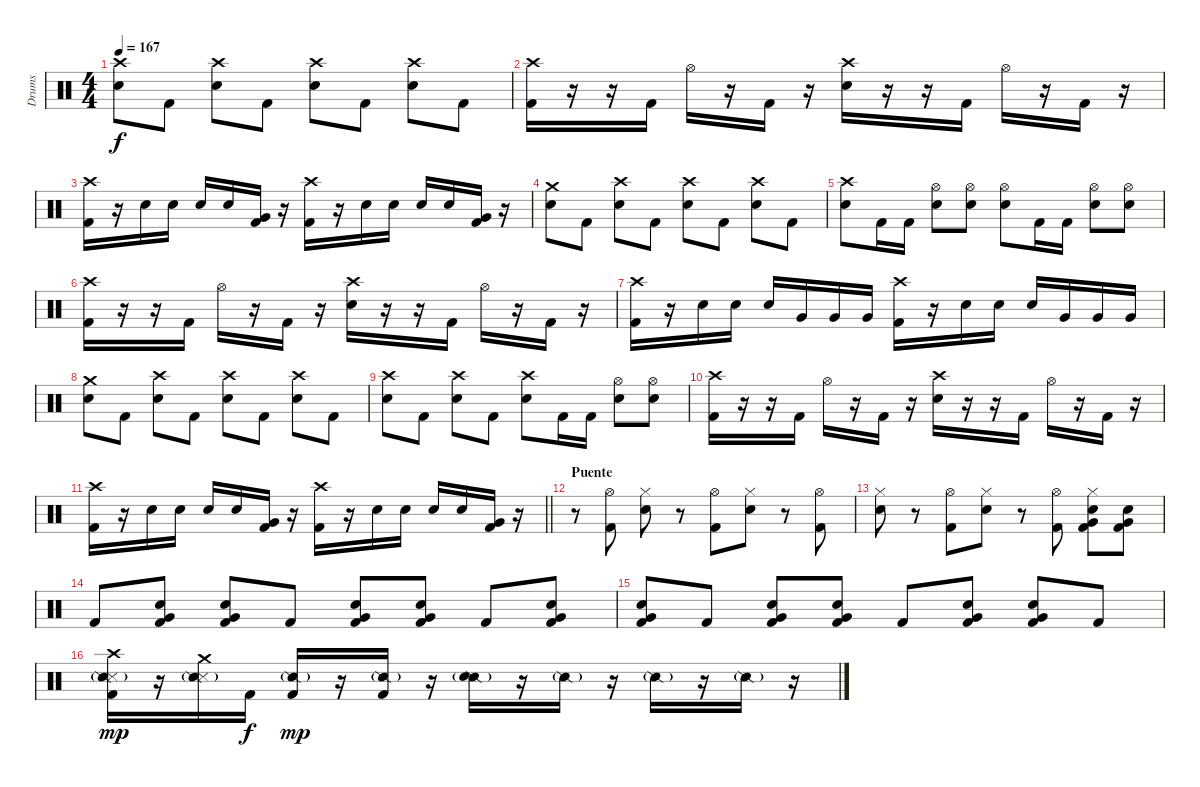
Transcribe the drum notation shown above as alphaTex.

\track ("Drums" "Drums") {instrument percussion}
\staff {score}
\articulation defaults
\ts (4 4)
\tempo 167
\clef neutral
\ks c
("Crash high (hit)" "Electric Snare (hit)").8{dy f} "Kick (hit) 2".8 ("Crash high (hit)" "Electric Snare (hit)").8 "Kick (hit) 2".8 ("Crash high (hit)" "Electric Snare (hit)").8 "Kick (hit) 2".8 ("Crash high (hit)" "Electric Snare (hit)").8 "Kick (hit) 2".8 |
("Crash high (hit)" "Kick (hit) 2").16 r.16 r.16 "Kick (hit) 2".16 "Hi-Hat (open)".16 r.16 "Kick (hit) 2".16 r.16 ("Crash high (hit)" "Electric Snare (hit)").16 r.16 r.16 "Kick (hit) 2".16 "Hi-Hat (open)".16 r.16 "Kick (hit) 2".16 r.16 |
("Crash high (hit)" "Kick (hit) 2").16 r.16 "Electric Snare (hit)".16 "Electric Snare (hit)".16 "Electric Snare (hit)".16 "Electric Snare (hit)".16 ("Very Low Tom (hit)" "Kick (hit) 2").16 r.16 ("Crash high (hit)" "Kick (hit) 2").16 r.16 "Electric Snare (hit)".16 "Electric Snare (hit)".16 "Electric Snare (hit)".16 "Electric Snare (hit)".16 ("Very Low Tom (hit)" "Kick (hit) 2").16 r.16 |
("Crash medium (hit)" "Electric Snare (hit)").8 "Kick (hit) 2".8 ("Crash high (hit)" "Electric Snare (hit)").8 "Kick (hit) 2".8 ("Crash high (hit)" "Electric Snare (hit)").8 "Kick (hit) 2".8 ("Crash high (hit)" "Electric Snare (hit)").8 "Kick (hit) 2".8 |
("Crash high (hit)" "Electric Snare (hit)").8 "Kick (hit) 2".16 "Kick (hit) 2".16 ("Hi-Hat (open)" "Electric Snare (hit)").8 ("Hi-Hat (open)" "Electric Snare (hit)").8 ("Hi-Hat (open)" "Electric Snare (hit)").8 "Kick (hit) 2".16 "Kick (hit) 2".16 ("Hi-Hat (open)" "Electric Snare (hit)").8 ("Hi-Hat (open)" "Electric Snare (hit)").8 |
("Crash high (hit)" "Kick (hit) 2").16 r.16 r.16 "Kick (hit) 2".16 "Hi-Hat (open)".16 r.16 "Kick (hit) 2".16 r.16 ("Crash high (hit)" "Electric Snare (hit)").16 r.16 r.16 "Kick (hit) 2".16 "Hi-Hat (open)".16 r.16 "Kick (hit) 2".16 r.16 |
("Crash high (hit)" "Kick (hit) 2").16 r.16 "Electric Snare (hit)".16 "Electric Snare (hit)".16 "Electric Snare (hit)".16 "Very Low Tom (hit)".16 "Very Low Tom (hit)".16 "Very Low Tom (hit)".16 ("Crash high (hit)" "Kick (hit) 2").16 r.16 "Electric Snare (hit)".16 "Electric Snare (hit)".16 "Electric Snare (hit)".16 "Very Low Tom (hit)".16 "Very Low Tom (hit)".16 "Very Low Tom (hit)".16 |
("Crash medium (hit)" "Electric Snare (hit)").8 "Kick (hit) 2".8 ("Crash high (hit)" "Electric Snare (hit)").8 "Kick (hit) 2".8 ("Crash high (hit)" "Electric Snare (hit)").8 "Kick (hit) 2".8 ("Crash high (hit)" "Electric Snare (hit)").8 "Kick (hit) 2".8 |
("Crash high (hit)" "Electric Snare (hit)").8 "Kick (hit) 2".8 ("Crash high (hit)" "Electric Snare (hit)").8 "Kick (hit) 2".8 ("Crash high (hit)" "Electric Snare (hit)").8 "Kick (hit) 2".16 "Kick (hit) 2".16 ("Hi-Hat (open)" "Electric Snare (hit)").8 ("Hi-Hat (open)" "Electric Snare (hit)").8 |
("Crash high (hit)" "Kick (hit) 2").16 r.16 r.16 "Kick (hit) 2".16 "Hi-Hat (open)".16 r.16 "Kick (hit) 2".16 r.16 ("Crash high (hit)" "Electric Snare (hit)").16 r.16 r.16 "Kick (hit) 2".16 "Hi-Hat (open)".16 r.16 "Kick (hit) 2".16 r.16 |
\barLineRight lightlight
("Crash high (hit)" "Kick (hit) 2").16 r.16 "Electric Snare (hit)".16 "Electric Snare (hit)".16 "Electric Snare (hit)".16 "Electric Snare (hit)".16 ("Very Low Tom (hit)" "Kick (hit) 2").16 r.16 ("Crash high (hit)" "Kick (hit) 2").16 r.16 "Electric Snare (hit)".16 "Electric Snare (hit)".16 "Electric Snare (hit)".16 "Electric Snare (hit)".16 ("Very Low Tom (hit)" "Kick (hit) 2").16 r.16 |
\section ("" "Puente ")
r.8 ("Hi-Hat (open)" "Kick (hit) 2").8 ("Hi-Hat (closed)" "Electric Snare (hit)").8 r.8 ("Hi-Hat (open)" "Kick (hit) 2").8 ("Hi-Hat (closed)" "Electric Snare (hit)").8 r.8 ("Hi-Hat (open)" "Kick (hit) 2").8 |
("Hi-Hat (closed)" "Electric Snare (hit)").8 r.8 ("Hi-Hat (open)" "Kick (hit) 2").8 ("Hi-Hat (closed)" "Electric Snare (hit)").8 r.8 ("Hi-Hat (open)" "Kick (hit) 2").8 ("Hi-Hat (closed)" "Very Low Tom (hit)" "Electric Snare (hit)" "Kick (hit) 2").8 ("Very Low Tom (hit)" "Electric Snare (hit)" "Kick (hit) 2").8 |
"Kick (hit) 2".8 ("Very Low Tom (hit)" "Electric Snare (hit)" "Kick (hit) 2").8 ("Very Low Tom (hit)" "Electric Snare (hit)" "Kick (hit) 2").8 "Kick (hit) 2".8 ("Very Low Tom (hit)" "Electric Snare (hit)" "Kick (hit) 2").8 ("Very Low Tom (hit)" "Electric Snare (hit)" "Kick (hit) 2").8 "Kick (hit) 2".8 ("Very Low Tom (hit)" "Electric Snare (hit)" "Kick (hit) 2").8 |
("Very Low Tom (hit)" "Electric Snare (hit)" "Kick (hit) 2").8 "Kick (hit) 2".8 ("Very Low Tom (hit)" "Electric Snare (hit)" "Kick (hit) 2").8 ("Very Low Tom (hit)" "Electric Snare (hit)" "Kick (hit) 2").8 "Kick (hit) 2".8 ("Very Low Tom (hit)" "Electric Snare (hit)" "Kick (hit) 2").8 ("Very Low Tom (hit)" "Electric Snare (hit)" "Kick (hit) 2").8 "Kick (hit) 2".8 |
("Crash high (hit)" "Snare (side stick) 3" "Snare (side stick) 2"{g} "Kick (hit) 2").16{dy mp} r.16 ("Crash medium (hit)" "Snare (side stick) 3" "Snare (side stick) 2"{g}).16 "Kick (hit) 2".16{dy f} ("Snare (side stick) 2"{g} "Kick (hit) 2").16{dy mp} r.16 ("Snare (side stick) 2"{g} "Kick (hit) 2").16 r.16 ("Snare (side stick) 2"{g} "Electric Snare (hit)").16 r.16 "Snare (side stick) 2"{g}.16 r.16 "Snare (side stick) 2"{g}.16 r.16 "Snare (side stick) 2"{g}.16 r.16
